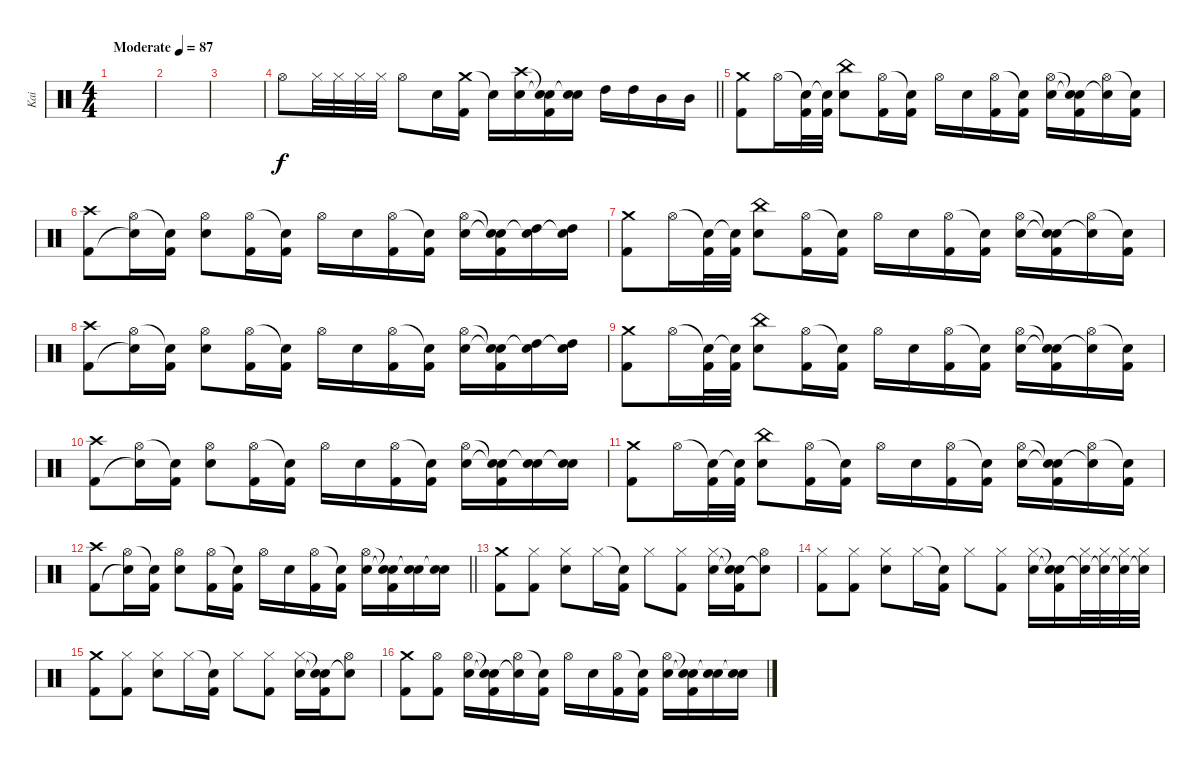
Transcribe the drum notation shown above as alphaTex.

\track ("Kai" "Kai") {instrument percussion}
\staff {score}
\articulation defaults
\ts (4 4)
\tempo (87 "Moderate")
\clef neutral
\ks c
|
|
|
\barLineRight lightlight "Hi-Hat (open)".8 "Hi-Hat (closed)".32 "Hi-Hat (closed)".32 "Hi-Hat (closed)".32 "Hi-Hat (closed)".32 "Hi-Hat (open)".8 "Snare (hit) 2".16
("Crash medium (hit)" "Kick (hit) 2").16 "Snare (hit)"{t}.16 ("Crash high (hit)" "Snare (hit) 2").16 ("Snare (hit)"{t} "Snare (hit)"{t} "Kick (hit) 2").16 ("Snare (hit) 2" "Snare (hit)"{t}).16 "High Tom (hit)".16 "High Tom (hit)".16 "Mid Tom (hit)".16 "Mid Tom (hit)".16 |
("Crash medium (hit)" "Kick (hit) 2").8 "Hi-Hat (open)".16 ("Snare (hit)"{t} "Kick (hit) 2").32 ("Snare (hit)"{t} "Kick (hit) 2").32 ("China (hit)" "Snare (hit) 2").8 ("Hi-Hat (open)" "Kick (hit) 2").16 ("Snare (hit)"{t} "Kick (hit) 2").16 "Hi-Hat (open)".16 "Snare (hit) 2".16 ("Hi-Hat (open)" "Kick (hit) 2").16 ("Snare (hit)"{t} "Kick (hit) 2").16 ("Hi-Hat (open)" "Snare (hit) 2").16 ("Snare (hit)"{t} "Snare (hit)"{t} "Kick (hit) 2").16 ("Hi-Hat (open)" "Snare (hit)"{t}).16 ("Snare (hit)"{t} "Kick (hit) 2").16 |
("Crash high (hit)" "Kick (hit) 2").8 ("Hi-Hat (open)" "Snare (hit)"{t}).16 ("Snare (hit)"{t} "Kick (hit) 2").16 ("Hi-Hat (open)" "Snare (hit) 2").8 ("Hi-Hat (open)" "Kick (hit) 2").16 ("Snare (hit)"{t} "Kick (hit) 2").16 "Hi-Hat (open)".16 "Snare (hit) 2".16 ("Hi-Hat (open)" "Kick (hit) 2").16 ("Snare (hit)"{t} "Kick (hit) 2").16 ("Hi-Hat (open)" "Snare (hit) 2").16 ("Snare (hit)"{t} "Snare (hit)"{t} "Kick (hit) 2").16 ("High Tom (hit)" "Snare (hit)"{t}).16 ("High Tom (hit)" "Snare (hit)"{t}).16 |
("Crash medium (hit)" "Kick (hit) 2").8 "Hi-Hat (open)".16 ("Snare (hit)"{t} "Kick (hit) 2").32 ("Snare (hit)"{t} "Kick (hit) 2").32 ("China (hit)" "Snare (hit) 2").8 ("Hi-Hat (open)" "Kick (hit) 2").16 ("Snare (hit)"{t} "Kick (hit) 2").16 "Hi-Hat (open)".16 "Snare (hit) 2".16 ("Hi-Hat (open)" "Kick (hit) 2").16 ("Snare (hit)"{t} "Kick (hit) 2").16 ("Hi-Hat (open)" "Snare (hit) 2").16 ("Snare (hit)"{t} "Snare (hit)"{t} "Kick (hit) 2").16 ("Hi-Hat (open)" "Snare (hit)"{t}).16 ("Snare (hit)"{t} "Kick (hit) 2").16 |
("Crash high (hit)" "Kick (hit) 2").8 ("Hi-Hat (open)" "Snare (hit)"{t}).16 ("Snare (hit)"{t} "Kick (hit) 2").16 ("Hi-Hat (open)" "Snare (hit) 2").8 ("Hi-Hat (open)" "Kick (hit) 2").16 ("Snare (hit)"{t} "Kick (hit) 2").16 "Hi-Hat (open)".16 "Snare (hit) 2".16 ("Hi-Hat (open)" "Kick (hit) 2").16 ("Snare (hit)"{t} "Kick (hit) 2").16 ("Hi-Hat (open)" "Snare (hit) 2").16 ("Snare (hit)"{t} "Snare (hit)"{t} "Kick (hit) 2").16 ("High Tom (hit)" "Snare (hit)"{t}).16 ("High Tom (hit)" "Snare (hit)"{t}).16 |
("Crash medium (hit)" "Kick (hit) 2").8 "Hi-Hat (open)".16 ("Snare (hit)"{t} "Kick (hit) 2").32 ("Snare (hit)"{t} "Kick (hit) 2").32 ("China (hit)" "Snare (hit) 2").8 ("Hi-Hat (open)" "Kick (hit) 2").16 ("Snare (hit)"{t} "Kick (hit) 2").16 "Hi-Hat (open)".16 "Snare (hit) 2".16 ("Hi-Hat (open)" "Kick (hit) 2").16 ("Snare (hit)"{t} "Kick (hit) 2").16 ("Hi-Hat (open)" "Snare (hit) 2").16 ("Snare (hit)"{t} "Snare (hit)"{t} "Kick (hit) 2").16 ("Hi-Hat (open)" "Snare (hit)"{t}).16 ("Snare (hit)"{t} "Kick (hit) 2").16 |
("Crash high (hit)" "Kick (hit) 2").8 ("Hi-Hat (open)" "Snare (hit)"{t}).16 ("Snare (hit)"{t} "Kick (hit) 2").16 ("Hi-Hat (open)" "Snare (hit) 2").8 ("Hi-Hat (open)" "Kick (hit) 2").16 ("Snare (hit)"{t} "Kick (hit) 2").16 "Hi-Hat (open)".16 "Snare (hit) 2".16 ("Hi-Hat (open)" "Kick (hit) 2").16 ("Snare (hit)"{t} "Kick (hit) 2").16 ("Hi-Hat (open)" "Snare (hit) 2").16 ("Snare (hit)"{t} "Snare (hit)"{t} "Kick (hit) 2").16 ("Snare (hit) 2" "Snare (hit)"{t}).16 ("Snare (hit) 2" "Snare (hit)"{t}).16 |
("Crash medium (hit)" "Kick (hit) 2").8 "Hi-Hat (open)".16 ("Snare (hit)"{t} "Kick (hit) 2").32 ("Snare (hit)"{t} "Kick (hit) 2").32 ("China (hit)" "Snare (hit) 2").8 ("Hi-Hat (open)" "Kick (hit) 2").16 ("Snare (hit)"{t} "Kick (hit) 2").16 "Hi-Hat (open)".16 "Snare (hit) 2".16 ("Hi-Hat (open)" "Kick (hit) 2").16 ("Snare (hit)"{t} "Kick (hit) 2").16 ("Hi-Hat (open)" "Snare (hit) 2").16 ("Snare (hit)"{t} "Snare (hit)"{t} "Kick (hit) 2").16 ("Hi-Hat (open)" "Snare (hit)"{t}).16 ("Snare (hit)"{t} "Kick (hit) 2").16 |
\barLineRight lightlight
("Crash high (hit)" "Kick (hit) 2").8 ("Hi-Hat (open)" "Snare (hit)"{t}).16 ("Snare (hit)"{t} "Kick (hit) 2").16 ("Hi-Hat (open)" "Snare (hit) 2").8 ("Hi-Hat (open)" "Kick (hit) 2").16 ("Snare (hit)"{t} "Kick (hit) 2").16 "Hi-Hat (open)".16 "Snare (hit) 2".16 ("Hi-Hat (open)" "Kick (hit) 2").16 ("Snare (hit)"{t} "Kick (hit) 2").16 ("Hi-Hat (open)" "Snare (hit) 2").16 ("Snare (hit)"{t} "Snare (hit)"{t} "Kick (hit) 2").16 ("Snare (hit) 2" "Snare (hit)"{t}).16 ("Snare (hit) 2" "Snare (hit)"{t}).16 |
("Crash medium (hit)" "Kick (hit) 2").8 ("Hi-Hat (closed)" "Kick (hit) 2").8 ("Hi-Hat (closed)" "Snare (hit) 2").8 "Hi-Hat (closed)".16 ("Snare (hit)"{t} "Kick (hit) 2").16 "Hi-Hat (closed)".8 ("Hi-Hat (closed)" "Kick (hit) 2").8 ("Hi-Hat (closed)" "Snare (hit) 2").16 ("Snare (hit)"{t} "Snare (hit)"{t} "Kick (hit) 2").16 ("Hi-Hat (open)" "Snare (hit)"{t}).8 |
("Hi-Hat (closed)" "Kick (hit) 2").8 ("Hi-Hat (closed)" "Kick (hit) 2").8 ("Hi-Hat (closed)" "Snare (hit) 2").8 "Hi-Hat (closed)".16 ("Snare (hit)"{t} "Kick (hit) 2").16 "Hi-Hat (closed)".8 ("Hi-Hat (closed)" "Kick (hit) 2").8 ("Hi-Hat (closed)" "Snare (hit) 2").16 ("Snare (hit)"{t} "Snare (hit)"{t} "Kick (hit) 2").16 ("Hi-Hat (closed)" "Snare (hit)"{t}).32 ("Hi-Hat (closed)" "Snare (hit)"{t}).32 ("Hi-Hat (closed)" "Snare (hit)"{t}).32 ("Hi-Hat (closed)" "Snare (hit)"{t}).32 |
("Crash medium (hit)" "Kick (hit) 2").8 ("Hi-Hat (closed)" "Kick (hit) 2").8 ("Hi-Hat (closed)" "Snare (hit) 2").8 "Hi-Hat (closed)".16 ("Snare (hit)"{t} "Kick (hit) 2").16 "Hi-Hat (closed)".8 ("Hi-Hat (closed)" "Kick (hit) 2").8 ("Hi-Hat (closed)" "Snare (hit) 2").16 ("Snare (hit)"{t} "Snare (hit)"{t} "Kick (hit) 2").16 ("Hi-Hat (open)" "Snare (hit)"{t}).8 |
("Crash medium (hit)" "Kick (hit) 2").8 ("Hi-Hat (open)" "Kick (hit) 2").8 ("Hi-Hat (open)" "Snare (hit) 2").16 ("Snare (hit)"{t} "Snare (hit)"{t} "Kick (hit) 2").16 ("Hi-Hat (open)" "Snare (hit)"{t}).16 ("Snare (hit)"{t} "Kick (hit) 2").16 "Hi-Hat (open)".16 "Snare (hit) 2".16 ("Hi-Hat (open)" "Kick (hit) 2").16 ("Snare (hit)"{t} "Kick (hit) 2").16 ("Hi-Hat (open)" "Snare (hit) 2").16 ("Snare (hit)"{t} "Snare (hit)"{t} "Kick (hit) 2").16 ("Snare (hit) 2" "Snare (hit)"{t}).16 ("Snare (hit) 2" "Snare (hit)"{t}).16
